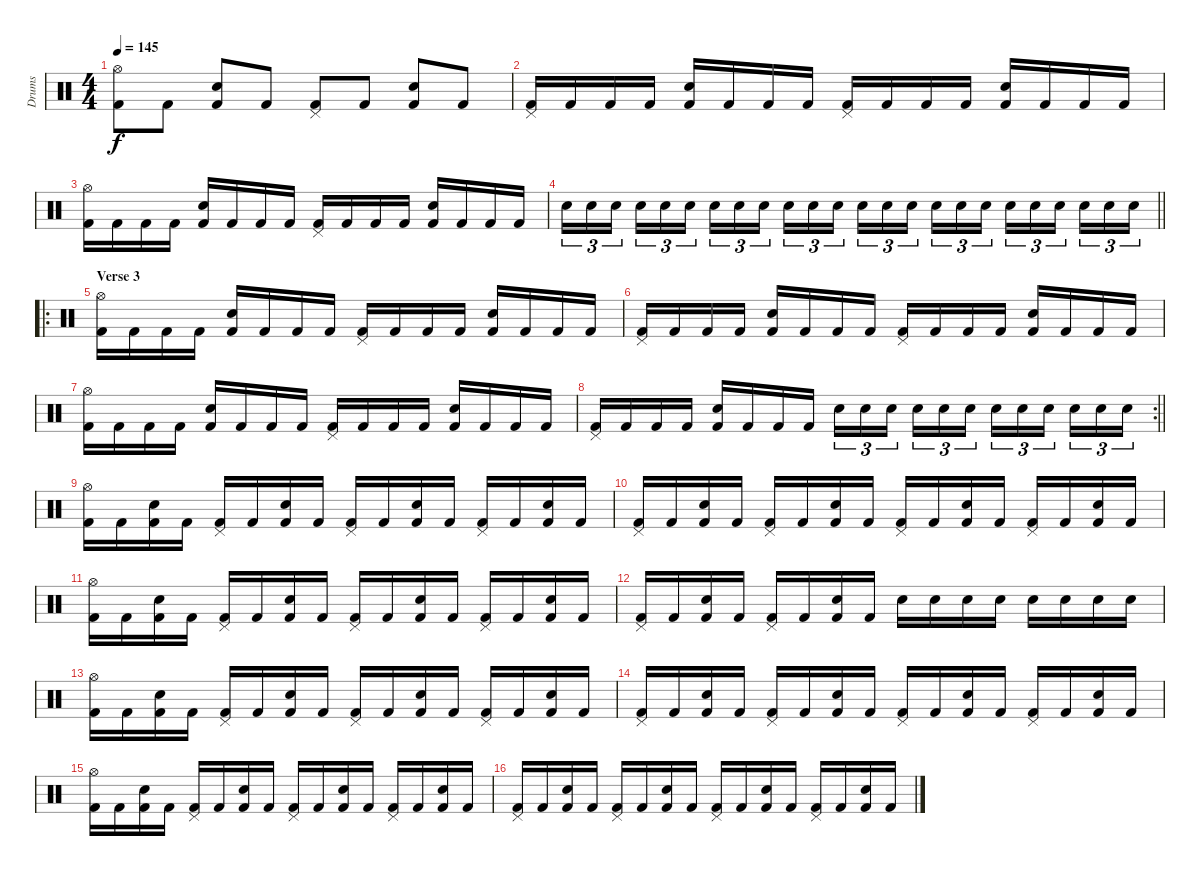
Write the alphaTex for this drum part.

\track ("Drums" "Drums") {instrument percussion}
\staff {score}
\articulation defaults
\ts (4 4)
\tempo 145
\clef neutral
\ks c
("Hi-Hat (open)" "Kick (hit) 2").8{dy f} "Kick (hit) 2".8 ("Snare (hit) 2" "Kick (hit) 2").8 "Kick (hit) 2".8 ("Pedal Hi-Hat (hit)" "Kick (hit) 2").8 "Kick (hit) 2".8 ("Snare (hit) 2" "Kick (hit) 2").8 "Kick (hit) 2".8 |
("Pedal Hi-Hat (hit)" "Kick (hit) 2").16 "Kick (hit) 2".16 "Kick (hit) 2".16 "Kick (hit) 2".16 ("Snare (hit) 2" "Kick (hit) 2").16 "Kick (hit) 2".16 "Kick (hit) 2".16 "Kick (hit) 2".16 ("Pedal Hi-Hat (hit)" "Kick (hit) 2").16 "Kick (hit) 2".16 "Kick (hit) 2".16 "Kick (hit) 2".16 ("Snare (hit) 2" "Kick (hit) 2").16 "Kick (hit) 2".16 "Kick (hit) 2".16 "Kick (hit) 2".16 |
("Hi-Hat (open)" "Kick (hit) 2").16 "Kick (hit) 2".16 "Kick (hit) 2".16 "Kick (hit) 2".16 ("Snare (hit) 2" "Kick (hit) 2").16 "Kick (hit) 2".16 "Kick (hit) 2".16 "Kick (hit) 2".16 ("Pedal Hi-Hat (hit)" "Kick (hit) 2").16 "Kick (hit) 2".16 "Kick (hit) 2".16 "Kick (hit) 2".16 ("Snare (hit) 2" "Kick (hit) 2").16 "Kick (hit) 2".16 "Kick (hit) 2".16 "Kick (hit) 2".16 |
\barLineRight lightlight "Snare (hit) 2".16{tu (3 2)} "Snare (hit) 2".16{tu (3 2)} "Snare (hit) 2".16{tu (3 2) beam splitsecondary} "Snare (hit) 2".16{tu (3 2)} "Snare (hit) 2".16{tu (3 2)} "Snare (hit) 2".16{tu (3 2)} "Snare (hit) 2".16{tu (3 2)} "Snare (hit) 2".16{tu (3 2)} "Snare (hit) 2".16{tu (3 2) beam splitsecondary} "Snare (hit) 2".16{tu (3 2)} "Snare (hit) 2".16{tu (3 2)} "Snare (hit) 2".16{tu (3 2)} "Snare (hit) 2".16{tu (3 2)} "Snare (hit) 2".16{tu (3 2)} "Snare (hit) 2".16{tu (3 2) beam splitsecondary} "Snare (hit) 2".16{tu (3 2)} "Snare (hit) 2".16{tu (3 2)} "Snare (hit) 2".16{tu (3 2)} "Snare (hit) 2".16{tu (3 2)} "Snare (hit) 2".16{tu (3 2)} "Snare (hit) 2".16{tu (3 2) beam splitsecondary} "Snare (hit) 2".16{tu (3 2)} "Snare (hit) 2".16{tu (3 2)} "Snare (hit) 2".16{tu (3 2)}
|
\ro
\section ("" "Verse 3")
("Hi-Hat (open)" "Kick (hit) 2").16 "Kick (hit) 2".16 "Kick (hit) 2".16 "Kick (hit) 2".16 ("Snare (hit) 2" "Kick (hit) 2").16 "Kick (hit) 2".16 "Kick (hit) 2".16 "Kick (hit) 2".16 ("Pedal Hi-Hat (hit)" "Kick (hit) 2").16 "Kick (hit) 2".16 "Kick (hit) 2".16 "Kick (hit) 2".16 ("Snare (hit) 2" "Kick (hit) 2").16 "Kick (hit) 2".16 "Kick (hit) 2".16 "Kick (hit) 2".16 |
("Pedal Hi-Hat (hit)" "Kick (hit) 2").16 "Kick (hit) 2".16 "Kick (hit) 2".16 "Kick (hit) 2".16 ("Snare (hit) 2" "Kick (hit) 2").16 "Kick (hit) 2".16 "Kick (hit) 2".16 "Kick (hit) 2".16 ("Pedal Hi-Hat (hit)" "Kick (hit) 2").16 "Kick (hit) 2".16 "Kick (hit) 2".16 "Kick (hit) 2".16 ("Snare (hit) 2" "Kick (hit) 2").16 "Kick (hit) 2".16 "Kick (hit) 2".16 "Kick (hit) 2".16 |
("Hi-Hat (open)" "Kick (hit) 2").16 "Kick (hit) 2".16 "Kick (hit) 2".16 "Kick (hit) 2".16 ("Snare (hit) 2" "Kick (hit) 2").16 "Kick (hit) 2".16 "Kick (hit) 2".16 "Kick (hit) 2".16 ("Pedal Hi-Hat (hit)" "Kick (hit) 2").16 "Kick (hit) 2".16 "Kick (hit) 2".16 "Kick (hit) 2".16 ("Snare (hit) 2" "Kick (hit) 2").16 "Kick (hit) 2".16 "Kick (hit) 2".16 "Kick (hit) 2".16 |
\rc 2
\barLineRight lightlight
("Pedal Hi-Hat (hit)" "Kick (hit) 2").16 "Kick (hit) 2".16 "Kick (hit) 2".16 "Kick (hit) 2".16 ("Snare (hit) 2" "Kick (hit) 2").16 "Kick (hit) 2".16 "Kick (hit) 2".16 "Kick (hit) 2".16 "Snare (hit) 2".16{tu (3 2)} "Snare (hit) 2".16{tu (3 2)} "Snare (hit) 2".16{tu (3 2) beam splitsecondary} "Snare (hit) 2".16{tu (3 2)} "Snare (hit) 2".16{tu (3 2)} "Snare (hit) 2".16{tu (3 2)} "Snare (hit) 2".16{tu (3 2)} "Snare (hit) 2".16{tu (3 2)} "Snare (hit) 2".16{tu (3 2) beam splitsecondary} "Snare (hit) 2".16{tu (3 2)} "Snare (hit) 2".16{tu (3 2)} "Snare (hit) 2".16{tu (3 2)} |
("Hi-Hat (open)" "Kick (hit) 2").16 "Kick (hit) 2".16 ("Snare (hit) 2" "Kick (hit) 2").16 "Kick (hit) 2".16 ("Pedal Hi-Hat (hit)" "Kick (hit) 2").16 "Kick (hit) 2".16 ("Snare (hit) 2" "Kick (hit) 2").16 "Kick (hit) 2".16 ("Pedal Hi-Hat (hit)" "Kick (hit) 2").16 "Kick (hit) 2".16 ("Snare (hit) 2" "Kick (hit) 2").16 "Kick (hit) 2".16 ("Pedal Hi-Hat (hit)" "Kick (hit) 2").16 "Kick (hit) 2".16 ("Snare (hit) 2" "Kick (hit) 2").16 "Kick (hit) 2".16 |
("Pedal Hi-Hat (hit)" "Kick (hit) 2").16 "Kick (hit) 2".16 ("Snare (hit) 2" "Kick (hit) 2").16 "Kick (hit) 2".16 ("Pedal Hi-Hat (hit)" "Kick (hit) 2").16 "Kick (hit) 2".16 ("Snare (hit) 2" "Kick (hit) 2").16 "Kick (hit) 2".16 ("Pedal Hi-Hat (hit)" "Kick (hit) 2").16 "Kick (hit) 2".16 ("Snare (hit) 2" "Kick (hit) 2").16 "Kick (hit) 2".16 ("Pedal Hi-Hat (hit)" "Kick (hit) 2").16 "Kick (hit) 2".16 ("Snare (hit) 2" "Kick (hit) 2").16 "Kick (hit) 2".16 |
("Hi-Hat (open)" "Kick (hit) 2").16 "Kick (hit) 2".16 ("Snare (hit) 2" "Kick (hit) 2").16 "Kick (hit) 2".16 ("Pedal Hi-Hat (hit)" "Kick (hit) 2").16 "Kick (hit) 2".16 ("Snare (hit) 2" "Kick (hit) 2").16 "Kick (hit) 2".16 ("Pedal Hi-Hat (hit)" "Kick (hit) 2").16 "Kick (hit) 2".16 ("Snare (hit) 2" "Kick (hit) 2").16 "Kick (hit) 2".16 ("Pedal Hi-Hat (hit)" "Kick (hit) 2").16 "Kick (hit) 2".16 ("Snare (hit) 2" "Kick (hit) 2").16 "Kick (hit) 2".16 |
("Pedal Hi-Hat (hit)" "Kick (hit) 2").16 "Kick (hit) 2".16 ("Snare (hit) 2" "Kick (hit) 2").16 "Kick (hit) 2".16 ("Pedal Hi-Hat (hit)" "Kick (hit) 2").16 "Kick (hit) 2".16 ("Snare (hit) 2" "Kick (hit) 2").16 "Kick (hit) 2".16 "Snare (hit) 2".16 "Snare (hit) 2".16 "Snare (hit) 2".16 "Snare (hit) 2".16 "Snare (hit) 2".16 "Snare (hit) 2".16 "Snare (hit) 2".16 "Snare (hit) 2".16 |
("Hi-Hat (open)" "Kick (hit) 2").16 "Kick (hit) 2".16 ("Snare (hit) 2" "Kick (hit) 2").16 "Kick (hit) 2".16 ("Pedal Hi-Hat (hit)" "Kick (hit) 2").16 "Kick (hit) 2".16 ("Snare (hit) 2" "Kick (hit) 2").16 "Kick (hit) 2".16 ("Pedal Hi-Hat (hit)" "Kick (hit) 2").16 "Kick (hit) 2".16 ("Snare (hit) 2" "Kick (hit) 2").16 "Kick (hit) 2".16 ("Pedal Hi-Hat (hit)" "Kick (hit) 2").16 "Kick (hit) 2".16 ("Snare (hit) 2" "Kick (hit) 2").16 "Kick (hit) 2".16 |
("Pedal Hi-Hat (hit)" "Kick (hit) 2").16 "Kick (hit) 2".16 ("Snare (hit) 2" "Kick (hit) 2").16 "Kick (hit) 2".16 ("Pedal Hi-Hat (hit)" "Kick (hit) 2").16 "Kick (hit) 2".16 ("Snare (hit) 2" "Kick (hit) 2").16 "Kick (hit) 2".16 ("Pedal Hi-Hat (hit)" "Kick (hit) 2").16 "Kick (hit) 2".16 ("Snare (hit) 2" "Kick (hit) 2").16 "Kick (hit) 2".16 ("Pedal Hi-Hat (hit)" "Kick (hit) 2").16 "Kick (hit) 2".16 ("Snare (hit) 2" "Kick (hit) 2").16 "Kick (hit) 2".16 |
("Hi-Hat (open)" "Kick (hit) 2").16 "Kick (hit) 2".16 ("Snare (hit) 2" "Kick (hit) 2").16 "Kick (hit) 2".16 ("Pedal Hi-Hat (hit)" "Kick (hit) 2").16 "Kick (hit) 2".16 ("Snare (hit) 2" "Kick (hit) 2").16 "Kick (hit) 2".16 ("Pedal Hi-Hat (hit)" "Kick (hit) 2").16 "Kick (hit) 2".16 ("Snare (hit) 2" "Kick (hit) 2").16 "Kick (hit) 2".16 ("Pedal Hi-Hat (hit)" "Kick (hit) 2").16 "Kick (hit) 2".16 ("Snare (hit) 2" "Kick (hit) 2").16 "Kick (hit) 2".16 |
("Pedal Hi-Hat (hit)" "Kick (hit) 2").16 "Kick (hit) 2".16 ("Snare (hit) 2" "Kick (hit) 2").16 "Kick (hit) 2".16 ("Pedal Hi-Hat (hit)" "Kick (hit) 2").16 "Kick (hit) 2".16 ("Snare (hit) 2" "Kick (hit) 2").16 "Kick (hit) 2".16 ("Pedal Hi-Hat (hit)" "Kick (hit) 2").16 "Kick (hit) 2".16 ("Snare (hit) 2" "Kick (hit) 2").16 "Kick (hit) 2".16 ("Pedal Hi-Hat (hit)" "Kick (hit) 2").16 "Kick (hit) 2".16 ("Snare (hit) 2" "Kick (hit) 2").16 "Kick (hit) 2".16
